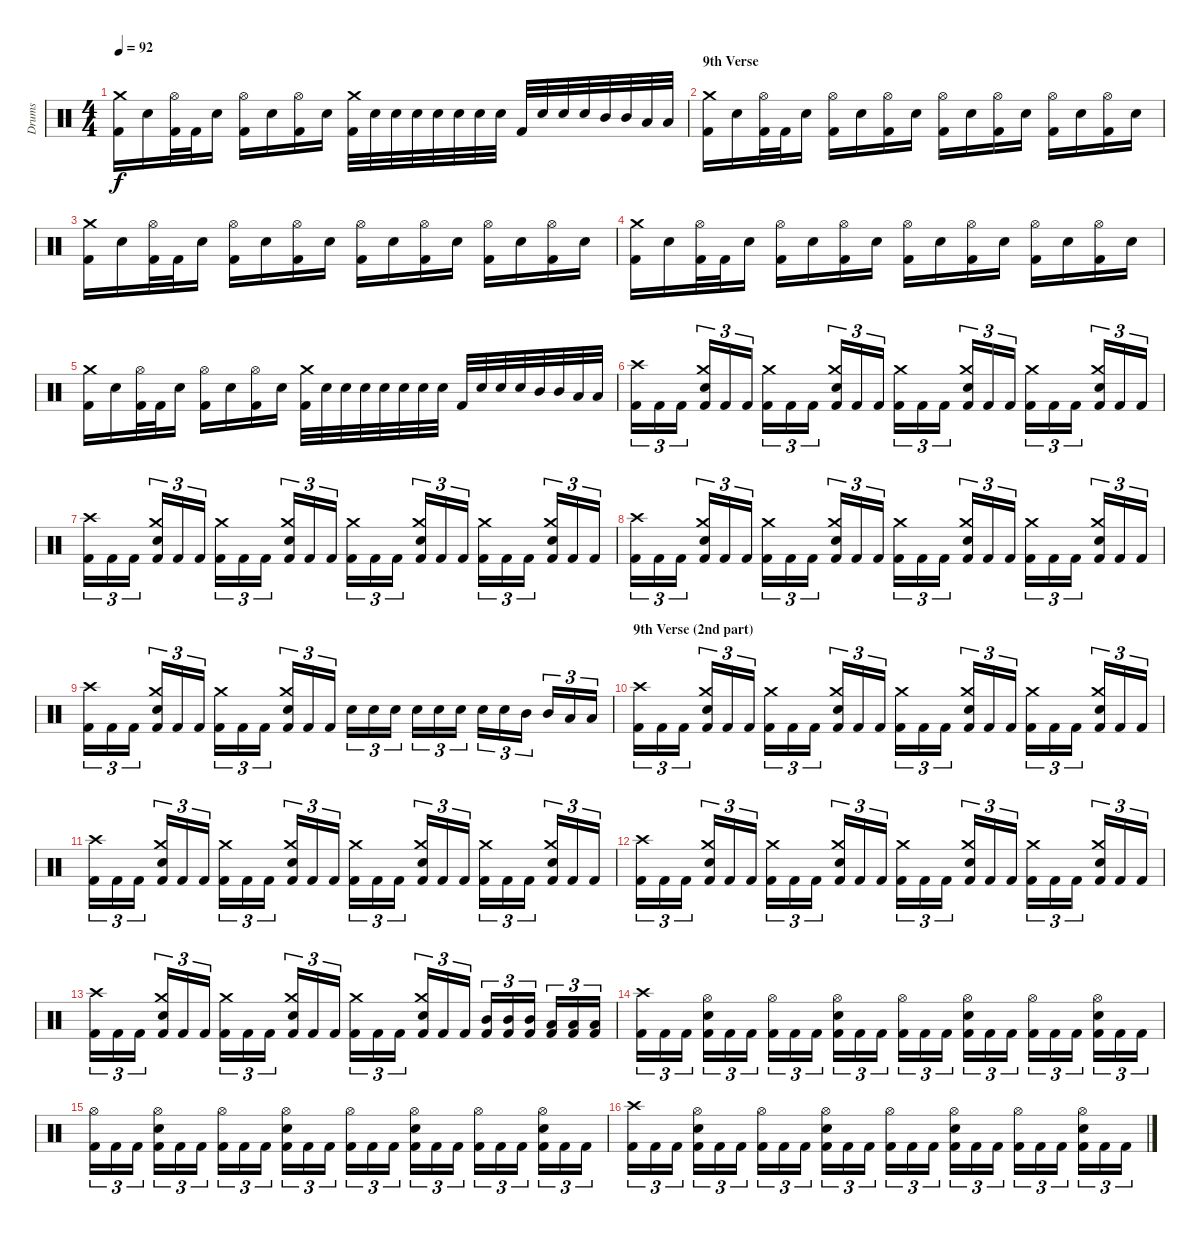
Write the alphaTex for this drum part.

\track ("Drums" "Drums") {instrument percussion}
\staff {score}
\articulation defaults
\ts (4 4)
\tempo 92
\clef neutral
\ks c
("Kick (hit) 2" "Crash medium (hit)").16{dy f} "Electric Snare (hit)".16 ("Kick (hit) 2" "Hi-Hat (open)").32 "Kick (hit) 2".32 "Electric Snare (hit)".16 ("Kick (hit) 2" "Hi-Hat (open)").16 "Electric Snare (hit)".16 ("Kick (hit) 2" "Hi-Hat (open)").16 "Electric Snare (hit)".16 ("Kick (hit) 2" "Crash medium (hit)").32 "Electric Snare (hit)".32 "Electric Snare (hit)".32 "Electric Snare (hit)".32 "Electric Snare (hit)".32 "Electric Snare (hit)".32 "Electric Snare (hit)".32 "Electric Snare (hit)".32 "Kick (hit) 2".32 "Electric Snare (hit)".32 "Electric Snare (hit)".32 "Electric Snare (hit)".32 "Mid Tom (hit)".32 "Mid Tom (hit)".32 "Low Tom (hit)".32 "Low Tom (hit)".32 |
\section ("" "9th Verse")
("Kick (hit) 2" "Crash medium (hit)").16 "Electric Snare (hit)".16 ("Kick (hit) 2" "Hi-Hat (open)").32 "Kick (hit) 2".32 "Electric Snare (hit)".16 ("Kick (hit) 2" "Hi-Hat (open)").16 "Electric Snare (hit)".16 ("Kick (hit) 2" "Hi-Hat (open)").16 "Electric Snare (hit)".16 ("Kick (hit) 2" "Hi-Hat (open)").16 "Electric Snare (hit)".16 ("Kick (hit) 2" "Hi-Hat (open)").16 "Electric Snare (hit)".16 ("Kick (hit) 2" "Hi-Hat (open)").16 "Electric Snare (hit)".16 ("Kick (hit) 2" "Hi-Hat (open)").16 "Electric Snare (hit)".16 |
("Kick (hit) 2" "Crash medium (hit)").16 "Electric Snare (hit)".16 ("Kick (hit) 2" "Hi-Hat (open)").32 "Kick (hit) 2".32 "Electric Snare (hit)".16 ("Kick (hit) 2" "Hi-Hat (open)").16 "Electric Snare (hit)".16 ("Kick (hit) 2" "Hi-Hat (open)").16 "Electric Snare (hit)".16 ("Kick (hit) 2" "Hi-Hat (open)").16 "Electric Snare (hit)".16 ("Kick (hit) 2" "Hi-Hat (open)").16 "Electric Snare (hit)".16 ("Kick (hit) 2" "Hi-Hat (open)").16 "Electric Snare (hit)".16 ("Kick (hit) 2" "Hi-Hat (open)").16 "Electric Snare (hit)".16 |
("Kick (hit) 2" "Crash medium (hit)").16 "Electric Snare (hit)".16 ("Kick (hit) 2" "Hi-Hat (open)").32 "Kick (hit) 2".32 "Electric Snare (hit)".16 ("Kick (hit) 2" "Hi-Hat (open)").16 "Electric Snare (hit)".16 ("Kick (hit) 2" "Hi-Hat (open)").16 "Electric Snare (hit)".16 ("Kick (hit) 2" "Hi-Hat (open)").16 "Electric Snare (hit)".16 ("Kick (hit) 2" "Hi-Hat (open)").16 "Electric Snare (hit)".16 ("Kick (hit) 2" "Hi-Hat (open)").16 "Electric Snare (hit)".16 ("Kick (hit) 2" "Hi-Hat (open)").16 "Electric Snare (hit)".16 |
("Kick (hit) 2" "Crash medium (hit)").16 "Electric Snare (hit)".16 ("Kick (hit) 2" "Hi-Hat (open)").32 "Kick (hit) 2".32 "Electric Snare (hit)".16 ("Kick (hit) 2" "Hi-Hat (open)").16 "Electric Snare (hit)".16 ("Kick (hit) 2" "Hi-Hat (open)").16 "Electric Snare (hit)".16 ("Kick (hit) 2" "Crash medium (hit)").32 "Electric Snare (hit)".32 "Electric Snare (hit)".32 "Electric Snare (hit)".32 "Electric Snare (hit)".32 "Electric Snare (hit)".32 "Electric Snare (hit)".32 "Electric Snare (hit)".32 "Kick (hit) 2".32 "Electric Snare (hit)".32 "Electric Snare (hit)".32 "Electric Snare (hit)".32 "Mid Tom (hit)".32 "Mid Tom (hit)".32 "Low Tom (hit)".32 "Low Tom (hit)".32 |
("Kick (hit) 2" "Crash high (hit)").16{tu (3 2)} "Kick (hit) 2".16{tu (3 2)} "Kick (hit) 2".16{tu (3 2)} ("Kick (hit) 2" "Electric Snare (hit)" "Crash medium (hit)").16{tu (3 2)} "Kick (hit) 2".16{tu (3 2)} "Kick (hit) 2".16{tu (3 2)} ("Kick (hit) 2" "Crash medium (hit)").16{tu (3 2)} "Kick (hit) 2".16{tu (3 2)} "Kick (hit) 2".16{tu (3 2)} ("Kick (hit) 2" "Electric Snare (hit)" "Crash medium (hit)").16{tu (3 2)} "Kick (hit) 2".16{tu (3 2)} "Kick (hit) 2".16{tu (3 2)} ("Kick (hit) 2" "Crash medium (hit)").16{tu (3 2)} "Kick (hit) 2".16{tu (3 2)} "Kick (hit) 2".16{tu (3 2)} ("Kick (hit) 2" "Electric Snare (hit)" "Crash medium (hit)").16{tu (3 2)} "Kick (hit) 2".16{tu (3 2)} "Kick (hit) 2".16{tu (3 2)} ("Kick (hit) 2" "Crash medium (hit)").16{tu (3 2)} "Kick (hit) 2".16{tu (3 2)} "Kick (hit) 2".16{tu (3 2)} ("Kick (hit) 2" "Electric Snare (hit)" "Crash medium (hit)").16{tu (3 2)} "Kick (hit) 2".16{tu (3 2)} "Kick (hit) 2".16{tu (3 2)} |
("Kick (hit) 2" "Crash high (hit)").16{tu (3 2)} "Kick (hit) 2".16{tu (3 2)} "Kick (hit) 2".16{tu (3 2)} ("Kick (hit) 2" "Electric Snare (hit)" "Crash medium (hit)").16{tu (3 2)} "Kick (hit) 2".16{tu (3 2)} "Kick (hit) 2".16{tu (3 2)} ("Kick (hit) 2" "Crash medium (hit)").16{tu (3 2)} "Kick (hit) 2".16{tu (3 2)} "Kick (hit) 2".16{tu (3 2)} ("Kick (hit) 2" "Electric Snare (hit)" "Crash medium (hit)").16{tu (3 2)} "Kick (hit) 2".16{tu (3 2)} "Kick (hit) 2".16{tu (3 2)} ("Kick (hit) 2" "Crash medium (hit)").16{tu (3 2)} "Kick (hit) 2".16{tu (3 2)} "Kick (hit) 2".16{tu (3 2)} ("Kick (hit) 2" "Electric Snare (hit)" "Crash medium (hit)").16{tu (3 2)} "Kick (hit) 2".16{tu (3 2)} "Kick (hit) 2".16{tu (3 2)} ("Kick (hit) 2" "Crash medium (hit)").16{tu (3 2)} "Kick (hit) 2".16{tu (3 2)} "Kick (hit) 2".16{tu (3 2)} ("Kick (hit) 2" "Electric Snare (hit)" "Crash medium (hit)").16{tu (3 2)} "Kick (hit) 2".16{tu (3 2)} "Kick (hit) 2".16{tu (3 2)} |
("Kick (hit) 2" "Crash high (hit)").16{tu (3 2)} "Kick (hit) 2".16{tu (3 2)} "Kick (hit) 2".16{tu (3 2)} ("Kick (hit) 2" "Electric Snare (hit)" "Crash medium (hit)").16{tu (3 2)} "Kick (hit) 2".16{tu (3 2)} "Kick (hit) 2".16{tu (3 2)} ("Kick (hit) 2" "Crash medium (hit)").16{tu (3 2)} "Kick (hit) 2".16{tu (3 2)} "Kick (hit) 2".16{tu (3 2)} ("Kick (hit) 2" "Electric Snare (hit)" "Crash medium (hit)").16{tu (3 2)} "Kick (hit) 2".16{tu (3 2)} "Kick (hit) 2".16{tu (3 2)} ("Kick (hit) 2" "Crash medium (hit)").16{tu (3 2)} "Kick (hit) 2".16{tu (3 2)} "Kick (hit) 2".16{tu (3 2)} ("Kick (hit) 2" "Electric Snare (hit)" "Crash medium (hit)").16{tu (3 2)} "Kick (hit) 2".16{tu (3 2)} "Kick (hit) 2".16{tu (3 2)} ("Kick (hit) 2" "Crash medium (hit)").16{tu (3 2)} "Kick (hit) 2".16{tu (3 2)} "Kick (hit) 2".16{tu (3 2)} ("Kick (hit) 2" "Electric Snare (hit)" "Crash medium (hit)").16{tu (3 2)} "Kick (hit) 2".16{tu (3 2)} "Kick (hit) 2".16{tu (3 2)} |
("Kick (hit) 2" "Crash high (hit)").16{tu (3 2)} "Kick (hit) 2".16{tu (3 2)} "Kick (hit) 2".16{tu (3 2)} ("Kick (hit) 2" "Electric Snare (hit)" "Crash medium (hit)").16{tu (3 2)} "Kick (hit) 2".16{tu (3 2)} "Kick (hit) 2".16{tu (3 2)} ("Kick (hit) 2" "Crash medium (hit)").16{tu (3 2)} "Kick (hit) 2".16{tu (3 2)} "Kick (hit) 2".16{tu (3 2)} ("Kick (hit) 2" "Electric Snare (hit)" "Crash medium (hit)").16{tu (3 2)} "Kick (hit) 2".16{tu (3 2)} "Kick (hit) 2".16{tu (3 2)} "Electric Snare (hit)".16{tu (3 2)} "Electric Snare (hit)".16{tu (3 2)} "Electric Snare (hit)".16{tu (3 2)} "Electric Snare (hit)".16{tu (3 2)} "Electric Snare (hit)".16{tu (3 2)} "Electric Snare (hit)".16{tu (3 2)} "Electric Snare (hit)".16{tu (3 2)} "Electric Snare (hit)".16{tu (3 2)} "Mid Tom (hit)".16{tu (3 2)} "Mid Tom (hit)".16{tu (3 2)} "Low Tom (hit)".16{tu (3 2)} "Low Tom (hit)".16{tu (3 2)} |
\section ("" "9th Verse (2nd part)")
("Kick (hit) 2" "Crash high (hit)").16{tu (3 2)} "Kick (hit) 2".16{tu (3 2)} "Kick (hit) 2".16{tu (3 2)} ("Kick (hit) 2" "Electric Snare (hit)" "Crash medium (hit)").16{tu (3 2)} "Kick (hit) 2".16{tu (3 2)} "Kick (hit) 2".16{tu (3 2)} ("Kick (hit) 2" "Crash medium (hit)").16{tu (3 2)} "Kick (hit) 2".16{tu (3 2)} "Kick (hit) 2".16{tu (3 2)} ("Kick (hit) 2" "Electric Snare (hit)" "Crash medium (hit)").16{tu (3 2)} "Kick (hit) 2".16{tu (3 2)} "Kick (hit) 2".16{tu (3 2)} ("Kick (hit) 2" "Crash medium (hit)").16{tu (3 2)} "Kick (hit) 2".16{tu (3 2)} "Kick (hit) 2".16{tu (3 2)} ("Kick (hit) 2" "Electric Snare (hit)" "Crash medium (hit)").16{tu (3 2)} "Kick (hit) 2".16{tu (3 2)} "Kick (hit) 2".16{tu (3 2)} ("Kick (hit) 2" "Crash medium (hit)").16{tu (3 2)} "Kick (hit) 2".16{tu (3 2)} "Kick (hit) 2".16{tu (3 2)} ("Kick (hit) 2" "Electric Snare (hit)" "Crash medium (hit)").16{tu (3 2)} "Kick (hit) 2".16{tu (3 2)} "Kick (hit) 2".16{tu (3 2)} |
("Kick (hit) 2" "Crash high (hit)").16{tu (3 2)} "Kick (hit) 2".16{tu (3 2)} "Kick (hit) 2".16{tu (3 2)} ("Kick (hit) 2" "Electric Snare (hit)" "Crash medium (hit)").16{tu (3 2)} "Kick (hit) 2".16{tu (3 2)} "Kick (hit) 2".16{tu (3 2)} ("Kick (hit) 2" "Crash medium (hit)").16{tu (3 2)} "Kick (hit) 2".16{tu (3 2)} "Kick (hit) 2".16{tu (3 2)} ("Kick (hit) 2" "Electric Snare (hit)" "Crash medium (hit)").16{tu (3 2)} "Kick (hit) 2".16{tu (3 2)} "Kick (hit) 2".16{tu (3 2)} ("Kick (hit) 2" "Crash medium (hit)").16{tu (3 2)} "Kick (hit) 2".16{tu (3 2)} "Kick (hit) 2".16{tu (3 2)} ("Kick (hit) 2" "Electric Snare (hit)" "Crash medium (hit)").16{tu (3 2)} "Kick (hit) 2".16{tu (3 2)} "Kick (hit) 2".16{tu (3 2)} ("Kick (hit) 2" "Crash medium (hit)").16{tu (3 2)} "Kick (hit) 2".16{tu (3 2)} "Kick (hit) 2".16{tu (3 2)} ("Kick (hit) 2" "Electric Snare (hit)" "Crash medium (hit)").16{tu (3 2)} "Kick (hit) 2".16{tu (3 2)} "Kick (hit) 2".16{tu (3 2)} |
("Kick (hit) 2" "Crash high (hit)").16{tu (3 2)} "Kick (hit) 2".16{tu (3 2)} "Kick (hit) 2".16{tu (3 2)} ("Kick (hit) 2" "Electric Snare (hit)" "Crash medium (hit)").16{tu (3 2)} "Kick (hit) 2".16{tu (3 2)} "Kick (hit) 2".16{tu (3 2)} ("Kick (hit) 2" "Crash medium (hit)").16{tu (3 2)} "Kick (hit) 2".16{tu (3 2)} "Kick (hit) 2".16{tu (3 2)} ("Kick (hit) 2" "Electric Snare (hit)" "Crash medium (hit)").16{tu (3 2)} "Kick (hit) 2".16{tu (3 2)} "Kick (hit) 2".16{tu (3 2)} ("Kick (hit) 2" "Crash medium (hit)").16{tu (3 2)} "Kick (hit) 2".16{tu (3 2)} "Kick (hit) 2".16{tu (3 2)} ("Kick (hit) 2" "Electric Snare (hit)" "Crash medium (hit)").16{tu (3 2)} "Kick (hit) 2".16{tu (3 2)} "Kick (hit) 2".16{tu (3 2)} ("Kick (hit) 2" "Crash medium (hit)").16{tu (3 2)} "Kick (hit) 2".16{tu (3 2)} "Kick (hit) 2".16{tu (3 2)} ("Kick (hit) 2" "Electric Snare (hit)" "Crash medium (hit)").16{tu (3 2)} "Kick (hit) 2".16{tu (3 2)} "Kick (hit) 2".16{tu (3 2)} |
("Kick (hit) 2" "Crash high (hit)").16{tu (3 2)} "Kick (hit) 2".16{tu (3 2)} "Kick (hit) 2".16{tu (3 2)} ("Kick (hit) 2" "Electric Snare (hit)" "Crash medium (hit)").16{tu (3 2)} "Kick (hit) 2".16{tu (3 2)} "Kick (hit) 2".16{tu (3 2)} ("Kick (hit) 2" "Crash medium (hit)").16{tu (3 2)} "Kick (hit) 2".16{tu (3 2)} "Kick (hit) 2".16{tu (3 2)} ("Kick (hit) 2" "Electric Snare (hit)" "Crash medium (hit)").16{tu (3 2)} "Kick (hit) 2".16{tu (3 2)} "Kick (hit) 2".16{tu (3 2)} ("Kick (hit) 2" "Crash medium (hit)").16{tu (3 2)} "Kick (hit) 2".16{tu (3 2)} "Kick (hit) 2".16{tu (3 2)} ("Kick (hit) 2" "Electric Snare (hit)" "Crash medium (hit)").16{tu (3 2)} "Kick (hit) 2".16{tu (3 2)} "Kick (hit) 2".16{tu (3 2)} ("Kick (hit) 2" "Mid Tom (hit)").16{tu (3 2)} ("Kick (hit) 2" "Mid Tom (hit)").16{tu (3 2)} ("Kick (hit) 2" "Mid Tom (hit)").16{tu (3 2)} ("Kick (hit) 2" "Low Tom (hit)").16{tu (3 2)} ("Kick (hit) 2" "Low Tom (hit)").16{tu (3 2)} ("Kick (hit) 2" "Low Tom (hit)").16{tu (3 2)} |
("Kick (hit) 2" "Crash high (hit)").16{tu (3 2)} "Kick (hit) 2".16{tu (3 2)} "Kick (hit) 2".16{tu (3 2)} ("Kick (hit) 2" "Electric Snare (hit)" "Hi-Hat (open)").16{tu (3 2)} "Kick (hit) 2".16{tu (3 2)} "Kick (hit) 2".16{tu (3 2)} ("Kick (hit) 2" "Hi-Hat (open)").16{tu (3 2)} "Kick (hit) 2".16{tu (3 2)} "Kick (hit) 2".16{tu (3 2)} ("Kick (hit) 2" "Electric Snare (hit)" "Hi-Hat (open)").16{tu (3 2)} "Kick (hit) 2".16{tu (3 2)} "Kick (hit) 2".16{tu (3 2)} ("Kick (hit) 2" "Hi-Hat (open)").16{tu (3 2)} "Kick (hit) 2".16{tu (3 2)} "Kick (hit) 2".16{tu (3 2)} ("Kick (hit) 2" "Electric Snare (hit)" "Hi-Hat (open)").16{tu (3 2)} "Kick (hit) 2".16{tu (3 2)} "Kick (hit) 2".16{tu (3 2)} ("Kick (hit) 2" "Hi-Hat (open)").16{tu (3 2)} "Kick (hit) 2".16{tu (3 2)} "Kick (hit) 2".16{tu (3 2)} ("Kick (hit) 2" "Electric Snare (hit)" "Hi-Hat (open)").16{tu (3 2)} "Kick (hit) 2".16{tu (3 2)} "Kick (hit) 2".16{tu (3 2)} |
("Kick (hit) 2" "Hi-Hat (open)").16{tu (3 2)} "Kick (hit) 2".16{tu (3 2)} "Kick (hit) 2".16{tu (3 2)} ("Kick (hit) 2" "Electric Snare (hit)" "Hi-Hat (open)").16{tu (3 2)} "Kick (hit) 2".16{tu (3 2)} "Kick (hit) 2".16{tu (3 2)} ("Kick (hit) 2" "Hi-Hat (open)").16{tu (3 2)} "Kick (hit) 2".16{tu (3 2)} "Kick (hit) 2".16{tu (3 2)} ("Kick (hit) 2" "Electric Snare (hit)" "Hi-Hat (open)").16{tu (3 2)} "Kick (hit) 2".16{tu (3 2)} "Kick (hit) 2".16{tu (3 2)} ("Kick (hit) 2" "Hi-Hat (open)").16{tu (3 2)} "Kick (hit) 2".16{tu (3 2)} "Kick (hit) 2".16{tu (3 2)} ("Kick (hit) 2" "Electric Snare (hit)" "Hi-Hat (open)").16{tu (3 2)} "Kick (hit) 2".16{tu (3 2)} "Kick (hit) 2".16{tu (3 2)} ("Kick (hit) 2" "Hi-Hat (open)").16{tu (3 2)} "Kick (hit) 2".16{tu (3 2)} "Kick (hit) 2".16{tu (3 2)} ("Kick (hit) 2" "Electric Snare (hit)" "Hi-Hat (open)").16{tu (3 2)} "Kick (hit) 2".16{tu (3 2)} "Kick (hit) 2".16{tu (3 2)} |
("Kick (hit) 2" "Crash high (hit)").16{tu (3 2)} "Kick (hit) 2".16{tu (3 2)} "Kick (hit) 2".16{tu (3 2)} ("Kick (hit) 2" "Electric Snare (hit)" "Hi-Hat (open)").16{tu (3 2)} "Kick (hit) 2".16{tu (3 2)} "Kick (hit) 2".16{tu (3 2)} ("Kick (hit) 2" "Hi-Hat (open)").16{tu (3 2)} "Kick (hit) 2".16{tu (3 2)} "Kick (hit) 2".16{tu (3 2)} ("Kick (hit) 2" "Electric Snare (hit)" "Hi-Hat (open)").16{tu (3 2)} "Kick (hit) 2".16{tu (3 2)} "Kick (hit) 2".16{tu (3 2)} ("Kick (hit) 2" "Hi-Hat (open)").16{tu (3 2)} "Kick (hit) 2".16{tu (3 2)} "Kick (hit) 2".16{tu (3 2)} ("Kick (hit) 2" "Electric Snare (hit)" "Hi-Hat (open)").16{tu (3 2)} "Kick (hit) 2".16{tu (3 2)} "Kick (hit) 2".16{tu (3 2)} ("Kick (hit) 2" "Hi-Hat (open)").16{tu (3 2)} "Kick (hit) 2".16{tu (3 2)} "Kick (hit) 2".16{tu (3 2)} ("Kick (hit) 2" "Electric Snare (hit)" "Hi-Hat (open)").16{tu (3 2)} "Kick (hit) 2".16{tu (3 2)} "Kick (hit) 2".16{tu (3 2)}
